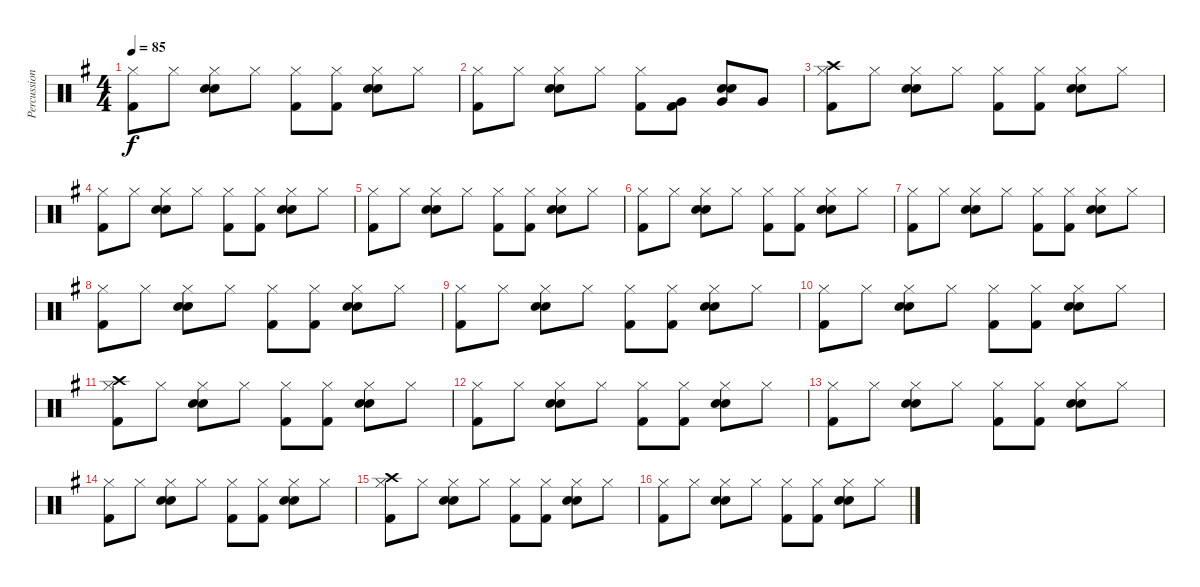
\track ("Percussions" "Percussion") {instrument percussion}
\staff {score}
\articulation defaults
\ts (4 4)
\tempo 85
\clef neutral
\ks g
("Hi-Hat (closed)" "Kick (hit) 2").8{dy f} "Hi-Hat (closed)".8 ("Hi-Hat (closed)" "Hand Clap (hit)" "Snare (hit) 2").8 "Hi-Hat (closed)".8 ("Hi-Hat (closed)" "Kick (hit) 2").8 ("Hi-Hat (closed)" "Kick (hit) 2").8 ("Hi-Hat (closed)" "Hand Clap (hit)" "Snare (hit) 2").8 "Hi-Hat (closed)".8 |
("Hi-Hat (closed)" "Kick (hit) 2").8 "Hi-Hat (closed)".8 ("Hi-Hat (closed)" "Hand Clap (hit)" "Snare (hit) 2").8 "Hi-Hat (closed)".8 ("Hi-Hat (closed)" "Kick (hit) 2").8 ("Very Low Tom (hit)" "Kick (hit) 2").8 ("Very Low Tom (hit)" "Hand Clap (hit)" "Snare (hit) 2").8 "Very Low Tom (hit)".8 |
("Hi-Hat (closed)" "Crash high (hit)" "Kick (hit) 2").8 "Hi-Hat (closed)".8 ("Hi-Hat (closed)" "Hand Clap (hit)" "Snare (hit) 2").8 "Hi-Hat (closed)".8 ("Hi-Hat (closed)" "Kick (hit) 2").8 ("Hi-Hat (closed)" "Kick (hit) 2").8 ("Hi-Hat (closed)" "Hand Clap (hit)" "Snare (hit) 2").8 "Hi-Hat (closed)".8 |
("Hi-Hat (closed)" "Kick (hit) 2").8 "Hi-Hat (closed)".8 ("Hi-Hat (closed)" "Hand Clap (hit)" "Snare (hit) 2").8 "Hi-Hat (closed)".8 ("Hi-Hat (closed)" "Kick (hit) 2").8 ("Hi-Hat (closed)" "Kick (hit) 2").8 ("Hi-Hat (closed)" "Hand Clap (hit)" "Snare (hit) 2").8 "Hi-Hat (closed)".8 |
("Hi-Hat (closed)" "Kick (hit) 2").8 "Hi-Hat (closed)".8 ("Hi-Hat (closed)" "Hand Clap (hit)" "Snare (hit) 2").8 "Hi-Hat (closed)".8 ("Hi-Hat (closed)" "Kick (hit) 2").8 ("Hi-Hat (closed)" "Kick (hit) 2").8 ("Hi-Hat (closed)" "Hand Clap (hit)" "Snare (hit) 2").8 "Hi-Hat (closed)".8 |
("Hi-Hat (closed)" "Kick (hit) 2").8 "Hi-Hat (closed)".8 ("Hi-Hat (closed)" "Hand Clap (hit)" "Snare (hit) 2").8 "Hi-Hat (closed)".8 ("Hi-Hat (closed)" "Kick (hit) 2").8 ("Hi-Hat (closed)" "Kick (hit) 2").8 ("Hi-Hat (closed)" "Hand Clap (hit)" "Snare (hit) 2").8 "Hi-Hat (closed)".8 |
("Hi-Hat (closed)" "Kick (hit) 2").8 "Hi-Hat (closed)".8 ("Hi-Hat (closed)" "Hand Clap (hit)" "Snare (hit) 2").8 "Hi-Hat (closed)".8 ("Hi-Hat (closed)" "Kick (hit) 2").8 ("Hi-Hat (closed)" "Kick (hit) 2").8 ("Hi-Hat (closed)" "Hand Clap (hit)" "Snare (hit) 2").8 "Hi-Hat (closed)".8 |
("Hi-Hat (closed)" "Kick (hit) 2").8 "Hi-Hat (closed)".8 ("Hi-Hat (closed)" "Hand Clap (hit)" "Snare (hit) 2").8 "Hi-Hat (closed)".8 ("Hi-Hat (closed)" "Kick (hit) 2").8 ("Hi-Hat (closed)" "Kick (hit) 2").8 ("Hi-Hat (closed)" "Hand Clap (hit)" "Snare (hit) 2").8 "Hi-Hat (closed)".8 |
("Hi-Hat (closed)" "Kick (hit) 2").8 "Hi-Hat (closed)".8 ("Hi-Hat (closed)" "Hand Clap (hit)" "Snare (hit) 2").8 "Hi-Hat (closed)".8 ("Hi-Hat (closed)" "Kick (hit) 2").8 ("Hi-Hat (closed)" "Kick (hit) 2").8 ("Hi-Hat (closed)" "Hand Clap (hit)" "Snare (hit) 2").8 "Hi-Hat (closed)".8 |
("Hi-Hat (closed)" "Kick (hit) 2").8 "Hi-Hat (closed)".8 ("Hi-Hat (closed)" "Hand Clap (hit)" "Snare (hit) 2").8 "Hi-Hat (closed)".8 ("Hi-Hat (closed)" "Kick (hit) 2").8 ("Hi-Hat (closed)" "Kick (hit) 2").8 ("Hi-Hat (closed)" "Hand Clap (hit)" "Snare (hit) 2").8 "Hi-Hat (closed)".8 |
("Hi-Hat (closed)" "Crash high (hit)" "Kick (hit) 2").8 "Hi-Hat (closed)".8 ("Hi-Hat (closed)" "Hand Clap (hit)" "Snare (hit) 2").8 "Hi-Hat (closed)".8 ("Hi-Hat (closed)" "Kick (hit) 2").8 ("Hi-Hat (closed)" "Kick (hit) 2").8 ("Hi-Hat (closed)" "Hand Clap (hit)" "Snare (hit) 2").8 "Hi-Hat (closed)".8 |
("Hi-Hat (closed)" "Kick (hit) 2").8 "Hi-Hat (closed)".8 ("Hi-Hat (closed)" "Hand Clap (hit)" "Snare (hit) 2").8 "Hi-Hat (closed)".8 ("Hi-Hat (closed)" "Kick (hit) 2").8 ("Hi-Hat (closed)" "Kick (hit) 2").8 ("Hi-Hat (closed)" "Hand Clap (hit)" "Snare (hit) 2").8 "Hi-Hat (closed)".8 |
("Hi-Hat (closed)" "Kick (hit) 2").8 "Hi-Hat (closed)".8 ("Hi-Hat (closed)" "Hand Clap (hit)" "Snare (hit) 2").8 "Hi-Hat (closed)".8 ("Hi-Hat (closed)" "Kick (hit) 2").8 ("Hi-Hat (closed)" "Kick (hit) 2").8 ("Hi-Hat (closed)" "Hand Clap (hit)" "Snare (hit) 2").8 "Hi-Hat (closed)".8 |
("Hi-Hat (closed)" "Kick (hit) 2").8 "Hi-Hat (closed)".8 ("Hi-Hat (closed)" "Hand Clap (hit)" "Snare (hit) 2").8 "Hi-Hat (closed)".8 ("Hi-Hat (closed)" "Kick (hit) 2").8 ("Hi-Hat (closed)" "Kick (hit) 2").8 ("Hi-Hat (closed)" "Hand Clap (hit)" "Snare (hit) 2").8 "Hi-Hat (closed)".8 |
("Hi-Hat (closed)" "Crash high (hit)" "Kick (hit) 2").8 "Hi-Hat (closed)".8 ("Hi-Hat (closed)" "Hand Clap (hit)" "Snare (hit) 2").8 "Hi-Hat (closed)".8 ("Hi-Hat (closed)" "Kick (hit) 2").8 ("Hi-Hat (closed)" "Kick (hit) 2").8 ("Hi-Hat (closed)" "Hand Clap (hit)" "Snare (hit) 2").8 "Hi-Hat (closed)".8 |
("Hi-Hat (closed)" "Kick (hit) 2").8 "Hi-Hat (closed)".8 ("Hi-Hat (closed)" "Hand Clap (hit)" "Snare (hit) 2").8 "Hi-Hat (closed)".8 ("Hi-Hat (closed)" "Kick (hit) 2").8 ("Hi-Hat (closed)" "Kick (hit) 2").8 ("Hi-Hat (closed)" "Hand Clap (hit)" "Snare (hit) 2").8 "Hi-Hat (closed)".8
